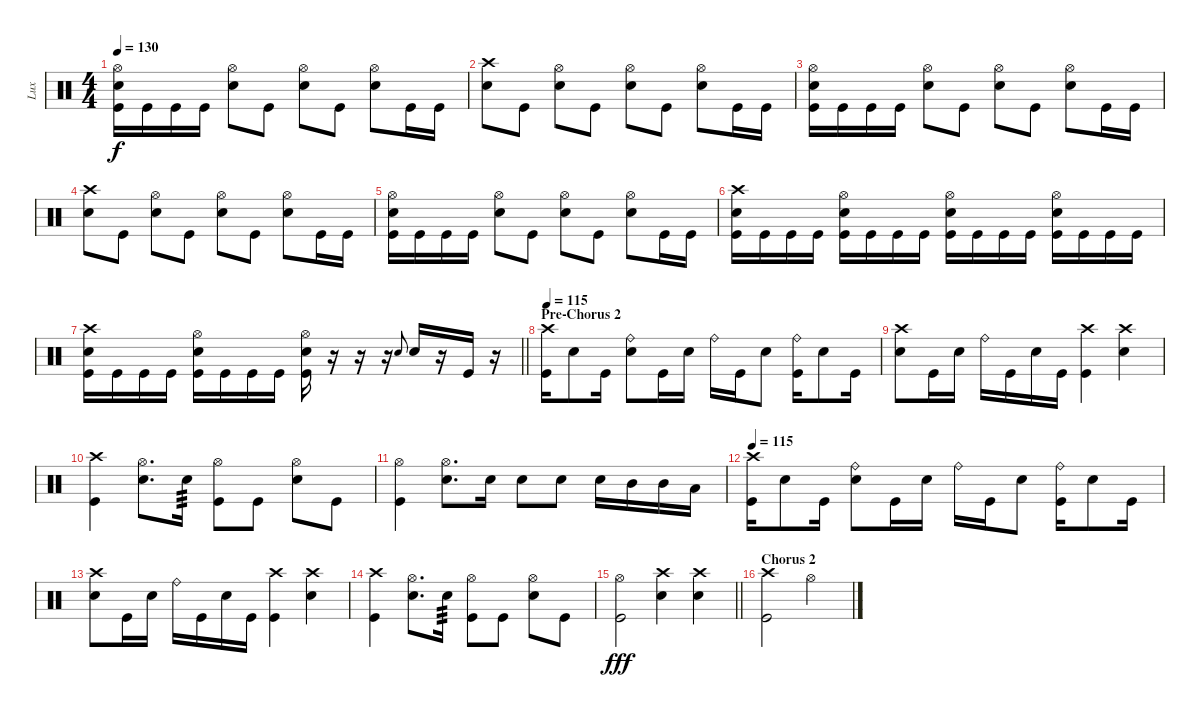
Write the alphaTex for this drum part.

\track ("Lux" "Lux") {instrument percussion}
\staff {score}
\articulation defaults
\ts (4 4)
\tempo 130
\clef neutral
\ks c
("Hi-Hat (open)" "Snare (hit) 2" "Kick (hit)").16{dy f} "Kick (hit)".16 "Kick (hit)".16 "Kick (hit)".16 ("Hi-Hat (open)" "Snare (hit) 2").8 "Kick (hit)".8 ("Hi-Hat (open)" "Snare (hit) 2").8 "Kick (hit)".8 ("Hi-Hat (open)" "Snare (hit) 2").8 "Kick (hit)".16 "Kick (hit)".16 |
("Crash high (hit)" "Snare (hit) 2").8 "Kick (hit)".8 ("Hi-Hat (open)" "Snare (hit) 2").8 "Kick (hit)".8 ("Hi-Hat (open)" "Snare (hit) 2").8 "Kick (hit)".8 ("Hi-Hat (open)" "Snare (hit) 2").8 "Kick (hit)".16 "Kick (hit)".16 |
("Hi-Hat (open)" "Snare (hit) 2" "Kick (hit)").16 "Kick (hit)".16 "Kick (hit)".16 "Kick (hit)".16 ("Hi-Hat (open)" "Snare (hit) 2").8 "Kick (hit)".8 ("Hi-Hat (open)" "Snare (hit) 2").8 "Kick (hit)".8 ("Hi-Hat (open)" "Snare (hit) 2").8 "Kick (hit)".16 "Kick (hit)".16 |
("Crash high (hit)" "Snare (hit) 2").8 "Kick (hit)".8 ("Hi-Hat (open)" "Snare (hit) 2").8 "Kick (hit)".8 ("Hi-Hat (open)" "Snare (hit) 2").8 "Kick (hit)".8 ("Hi-Hat (open)" "Snare (hit) 2").8 "Kick (hit)".16 "Kick (hit)".16 |
("Hi-Hat (open)" "Snare (hit) 2" "Kick (hit)").16 "Kick (hit)".16 "Kick (hit)".16 "Kick (hit)".16 ("Hi-Hat (open)" "Snare (hit) 2").8 "Kick (hit)".8 ("Hi-Hat (open)" "Snare (hit) 2").8 "Kick (hit)".8 ("Hi-Hat (open)" "Snare (hit) 2").8 "Kick (hit)".16 "Kick (hit)".16 |
("Crash high (hit)" "Snare (hit) 2" "Kick (hit)").16 "Kick (hit)".16 "Kick (hit)".16 "Kick (hit)".16 ("Hi-Hat (open)" "Snare (hit) 2" "Kick (hit)").16 "Kick (hit)".16 "Kick (hit)".16 "Kick (hit)".16 ("Hi-Hat (open)" "Snare (hit) 2" "Kick (hit)").16 "Kick (hit)".16 "Kick (hit)".16 "Kick (hit)".16 ("Hi-Hat (open)" "Snare (hit) 2" "Kick (hit)").16 "Kick (hit)".16 "Kick (hit)".16 "Kick (hit)".16 |
\barLineRight lightlight
("Crash high (hit)" "Snare (hit) 2" "Kick (hit)").16 "Kick (hit)".16 "Kick (hit)".16 "Kick (hit)".16 ("Hi-Hat (open)" "Snare (hit) 2" "Kick (hit)").16 "Kick (hit)".16 "Kick (hit)".16 "Kick (hit)".16 ("Hi-Hat (open)" "Snare (hit) 2" "Kick (hit)").16 r.16 r.16 r.16 "Snare (hit) 2".8{gr onbeat} "Snare (hit) 2".16 r.16 "Kick (hit)".16 r.16 |
\section ("" "Pre-Chorus 2")
\tempo 115
("Crash high (hit)" "Kick (hit)").16 "Snare (hit) 2".8 "Kick (hit)".16 ("Ride (bell)" "Snare (hit) 2").8 "Kick (hit)".16 "Snare (hit) 2".16 "Ride (bell)".16 "Kick (hit)".16 "Snare (hit) 2".8 ("Ride (bell)" "Kick (hit)").16 "Snare (hit) 2".8 "Kick (hit)".16 |
("Crash high (hit)" "Snare (hit) 2").8 "Kick (hit)".16 "Snare (hit) 2".16 "Ride (bell)".16 "Kick (hit)".16 "Snare (hit) 2".16 "Kick (hit)".16 ("Crash high (hit)" "Kick (hit)").4 ("Crash high (hit)" "Snare (hit) 2").4 |
("Crash high (hit)" "Kick (hit)").4 ("Hi-Hat (open)" "Snare (hit) 2").8{d} "Snare (hit) 2".16{tp 3} ("Hi-Hat (open)" "Kick (hit)").8 "Kick (hit)".8 ("Hi-Hat (open)" "Snare (hit) 2").8 "Kick (hit)".8 |
("Hi-Hat (open)" "Kick (hit)").4 ("Hi-Hat (open)" "Snare (hit) 2").8{d} "Snare (hit) 2".16 "Snare (hit) 2".8 "Snare (hit) 2".8 "Snare (hit) 2".16 "Mid Tom (hit)".16 "Mid Tom (hit)".16 "Low Tom (hit)".16 |
\tempo 115
("Crash high (hit)" "Kick (hit)").16 "Snare (hit) 2".8 "Kick (hit)".16 ("Ride (bell)" "Snare (hit) 2").8 "Kick (hit)".16 "Snare (hit) 2".16 "Ride (bell)".16 "Kick (hit)".16 "Snare (hit) 2".8 ("Ride (bell)" "Kick (hit)").16 "Snare (hit) 2".8 "Kick (hit)".16 |
("Crash high (hit)" "Snare (hit) 2").8 "Kick (hit)".16 "Snare (hit) 2".16 "Ride (bell)".16 "Kick (hit)".16 "Snare (hit) 2".16 "Kick (hit)".16 ("Crash high (hit)" "Kick (hit)").4 ("Crash high (hit)" "Snare (hit) 2").4 |
("Crash high (hit)" "Kick (hit)").4 ("Hi-Hat (open)" "Snare (hit) 2").8{d} "Snare (hit) 2".16{tp 3} ("Hi-Hat (open)" "Kick (hit)").8 "Kick (hit)".8 ("Hi-Hat (open)" "Snare (hit) 2").8 "Kick (hit)".8 |
\barLineRight lightlight
("Hi-Hat (open)" "Kick (hit)").2{dy fff} ("Crash high (hit)" "Snare (hit) 2").4 ("Crash high (hit)" "Snare (hit) 2").4 |
\section ("" "Chorus 2")
("Crash high (hit)" "Kick (hit)").2 "Hi-Hat (open)".2
